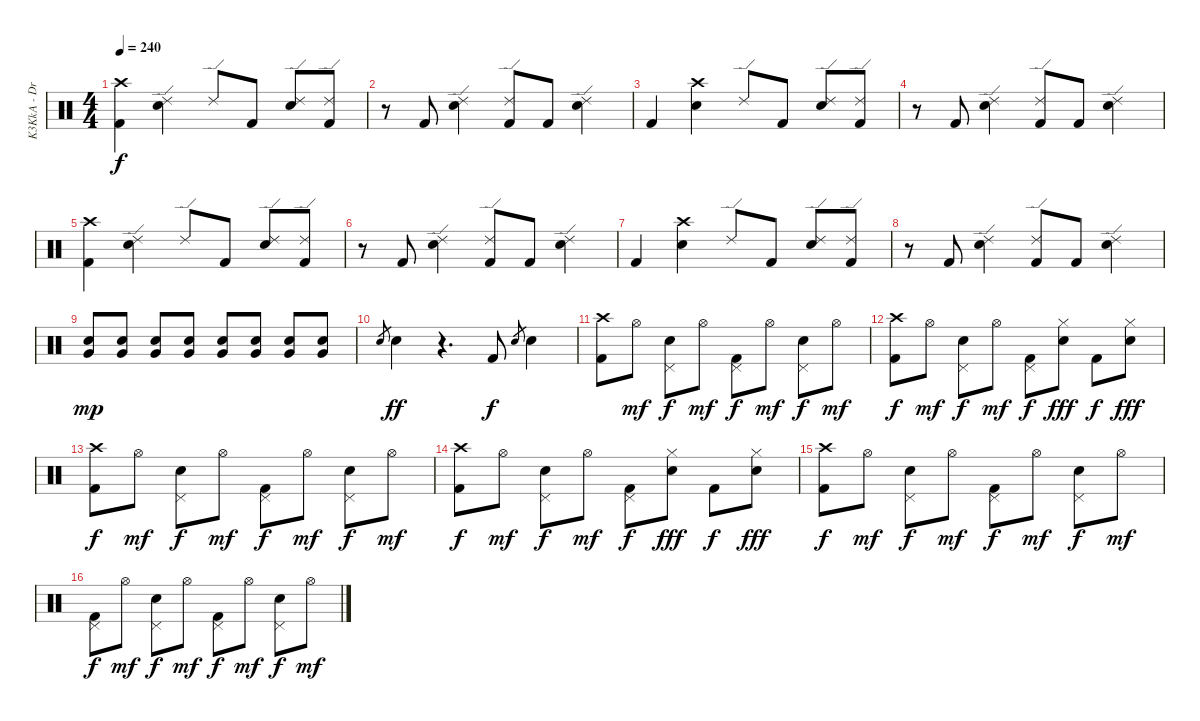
\track ("K3KkA - Drums" "K3KkA - Dr") {instrument percussion}
\staff {score}
\articulation defaults
\ts (4 4)
\tempo 240
\clef neutral
\ks c
("Crash high (hit)" "Kick (hit) 2").4{dy f} ("Ride (edge) 2" "Snare (hit) 2").4 "Ride (edge) 2".8 "Kick (hit) 2".8 ("Ride (edge) 2" "Snare (hit) 2").8 ("Ride (edge) 2" "Kick (hit) 2").8 |
r.8 "Kick (hit) 2".8 ("Ride (edge) 2" "Snare (hit) 2").4 ("Ride (edge) 2" "Kick (hit) 2").8 "Kick (hit) 2".8 ("Ride (edge) 2" "Snare (hit) 2").4 |
"Kick (hit) 2".4 ("Crash high (hit)" "Snare (hit) 2").4 "Ride (edge) 2".8 "Kick (hit) 2".8 ("Ride (edge) 2" "Snare (hit) 2").8 ("Ride (edge) 2" "Kick (hit) 2").8 |
r.8 "Kick (hit) 2".8 ("Ride (edge) 2" "Snare (hit) 2").4 ("Ride (edge) 2" "Kick (hit) 2").8 "Kick (hit) 2".8 ("Ride (edge) 2" "Snare (hit) 2").4 |
("Crash high (hit)" "Kick (hit) 2").4 ("Ride (edge) 2" "Snare (hit) 2").4 "Ride (edge) 2".8 "Kick (hit) 2".8 ("Ride (edge) 2" "Snare (hit) 2").8 ("Ride (edge) 2" "Kick (hit) 2").8 |
r.8 "Kick (hit) 2".8 ("Ride (edge) 2" "Snare (hit) 2").4 ("Ride (edge) 2" "Kick (hit) 2").8 "Kick (hit) 2".8 ("Ride (edge) 2" "Snare (hit) 2").4 |
"Kick (hit) 2".4 ("Crash high (hit)" "Snare (hit) 2").4 "Ride (edge) 2".8 "Kick (hit) 2".8 ("Ride (edge) 2" "Snare (hit) 2").8 ("Ride (edge) 2" "Kick (hit) 2").8 |
r.8 "Kick (hit) 2".8 ("Ride (edge) 2" "Snare (hit) 2").4 ("Ride (edge) 2" "Kick (hit) 2").8 "Kick (hit) 2".8 ("Ride (edge) 2" "Snare (hit) 2").4 |
("Very Low Tom (hit)" "Snare (hit) 2").8{dy mp} ("Very Low Tom (hit)" "Snare (hit) 2").8 ("Very Low Tom (hit)" "Snare (hit) 2").8 ("Very Low Tom (hit)" "Snare (hit) 2").8 ("Very Low Tom (hit)" "Snare (hit) 2").8 ("Very Low Tom (hit)" "Snare (hit) 2").8 ("Very Low Tom (hit)" "Snare (hit) 2").8 ("Very Low Tom (hit)" "Snare (hit) 2").8 |
"Snare (hit) 2".8{gr} "Snare (hit) 2".4{dy ff} r.4{d} "Kick (hit) 2".8{dy f} "Snare (hit) 2".8{gr} "Snare (hit) 2".4 |
("Crash high (hit)" "Kick (hit) 2").8 "Hi-Hat (open)".8{dy mf} ("Pedal Hi-Hat (hit)" "Snare (hit) 2").8{dy f} "Hi-Hat (open)".8{dy mf} ("Pedal Hi-Hat (hit)" "Kick (hit) 2").8{dy f} "Hi-Hat (open)".8{dy mf} ("Pedal Hi-Hat (hit)" "Snare (hit) 2").8{dy f} "Hi-Hat (open)".8{dy mf} |
("Crash high (hit)" "Kick (hit) 2").8{dy f} "Hi-Hat (open)".8{dy mf} ("Pedal Hi-Hat (hit)" "Snare (hit) 2").8{dy f} "Hi-Hat (open)".8{dy mf} ("Pedal Hi-Hat (hit)" "Kick (hit) 2").8{dy f} ("Hi-Hat (closed)" "Snare (hit) 2").8{dy fff} "Kick (hit) 2".8{dy f} ("Hi-Hat (closed)" "Snare (hit) 2").8{dy fff} |
("Crash high (hit)" "Kick (hit) 2").8{dy f} "Hi-Hat (open)".8{dy mf} ("Pedal Hi-Hat (hit)" "Snare (hit) 2").8{dy f} "Hi-Hat (open)".8{dy mf} ("Pedal Hi-Hat (hit)" "Kick (hit) 2").8{dy f} "Hi-Hat (open)".8{dy mf} ("Pedal Hi-Hat (hit)" "Snare (hit) 2").8{dy f} "Hi-Hat (open)".8{dy mf} |
("Crash high (hit)" "Kick (hit) 2").8{dy f} "Hi-Hat (open)".8{dy mf} ("Pedal Hi-Hat (hit)" "Snare (hit) 2").8{dy f} "Hi-Hat (open)".8{dy mf} ("Pedal Hi-Hat (hit)" "Kick (hit) 2").8{dy f} ("Hi-Hat (closed)" "Snare (hit) 2").8{dy fff} "Kick (hit) 2".8{dy f} ("Hi-Hat (closed)" "Snare (hit) 2").8{dy fff} |
("Crash high (hit)" "Kick (hit) 2").8{dy f} "Hi-Hat (open)".8{dy mf} ("Pedal Hi-Hat (hit)" "Snare (hit) 2").8{dy f} "Hi-Hat (open)".8{dy mf} ("Pedal Hi-Hat (hit)" "Kick (hit) 2").8{dy f} "Hi-Hat (open)".8{dy mf} ("Pedal Hi-Hat (hit)" "Snare (hit) 2").8{dy f} "Hi-Hat (open)".8{dy mf} |
("Pedal Hi-Hat (hit)" "Kick (hit) 2").8{dy f} "Hi-Hat (open)".8{dy mf} ("Pedal Hi-Hat (hit)" "Snare (hit) 2").8{dy f} "Hi-Hat (open)".8{dy mf} ("Pedal Hi-Hat (hit)" "Kick (hit) 2").8{dy f} "Hi-Hat (open)".8{dy mf} ("Pedal Hi-Hat (hit)" "Snare (hit) 2").8{dy f} "Hi-Hat (open)".8{dy mf}
